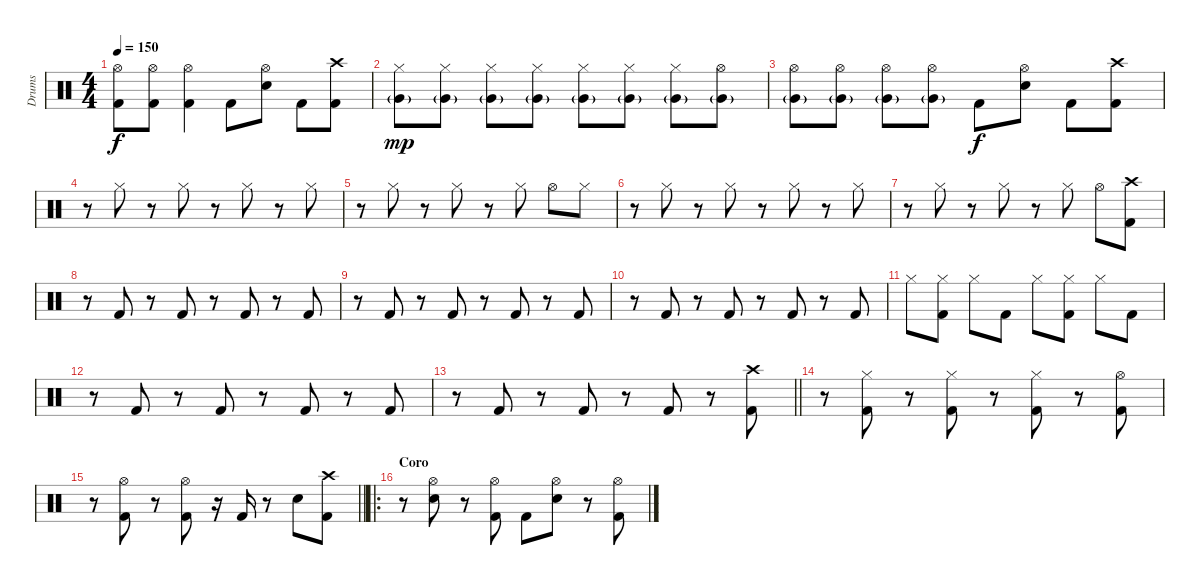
\track ("Drums" "Drums") {instrument percussion}
\staff {score}
\articulation defaults
\ts (4 4)
\tempo 150
\clef neutral
\ks c
("Kick (hit) 2" "Hi-Hat (open)").8{dy f} ("Kick (hit) 2" "Hi-Hat (open)").8 ("Kick (hit) 2" "Hi-Hat (open)").4 "Kick (hit) 2".8 ("Snare (hit) 2" "Hi-Hat (open)").8 "Kick (hit) 2".8 ("Kick (hit) 2" "Crash high (hit)").8 |
("Very Low Tom (hit)"{g} "Hi-Hat (closed)").8{dy mp} ("Very Low Tom (hit)"{g} "Hi-Hat (closed)").8 ("Very Low Tom (hit)"{g} "Hi-Hat (closed)").8 ("Very Low Tom (hit)"{g} "Hi-Hat (closed)").8 ("Very Low Tom (hit)"{g} "Hi-Hat (closed)").8 ("Very Low Tom (hit)"{g} "Hi-Hat (closed)").8 ("Very Low Tom (hit)"{g} "Hi-Hat (closed)").8 ("Very Low Tom (hit)"{g} "Hi-Hat (open)").8 |
("Very Low Tom (hit)"{g} "Hi-Hat (open)").8 ("Very Low Tom (hit)"{g} "Hi-Hat (open)").8 ("Very Low Tom (hit)"{g} "Hi-Hat (open)").8 ("Very Low Tom (hit)"{g} "Hi-Hat (open)").8 "Kick (hit) 2".8{dy f} ("Snare (hit) 2" "Hi-Hat (open)").8 "Kick (hit) 2".8 ("Kick (hit) 2" "Crash high (hit)").8 |
r.8 "Hi-Hat (closed)".8 r.8 "Hi-Hat (closed)".8 r.8 "Hi-Hat (closed)".8 r.8 "Hi-Hat (closed)".8 |
r.8 "Hi-Hat (closed)".8 r.8 "Hi-Hat (closed)".8 r.8 "Hi-Hat (closed)".8 "Hi-Hat (open)".8 "Hi-Hat (closed)".8 |
r.8 "Hi-Hat (closed)".8 r.8 "Hi-Hat (closed)".8 r.8 "Hi-Hat (closed)".8 r.8 "Hi-Hat (closed)".8 |
r.8 "Hi-Hat (closed)".8 r.8 "Hi-Hat (closed)".8 r.8 "Hi-Hat (closed)".8 "Hi-Hat (open)".8 ("Kick (hit) 2" "Crash high (hit)").8 |
r.8 "Kick (hit) 2".8 r.8 "Kick (hit) 2".8 r.8 "Kick (hit) 2".8 r.8 "Kick (hit) 2".8 |
r.8 "Kick (hit) 2".8 r.8 "Kick (hit) 2".8 r.8 "Kick (hit) 2".8 r.8 "Kick (hit) 2".8 |
r.8 "Kick (hit) 2".8 r.8 "Kick (hit) 2".8 r.8 "Kick (hit) 2".8 r.8 "Kick (hit) 2".8 |
"Hi-Hat (closed)".8 ("Kick (hit) 2" "Hi-Hat (closed)").8 "Hi-Hat (closed)".8 "Kick (hit) 2".8 "Hi-Hat (closed)".8 ("Kick (hit) 2" "Hi-Hat (closed)").8 "Hi-Hat (closed)".8 "Kick (hit) 2".8 |
r.8 "Kick (hit) 2".8 r.8 "Kick (hit) 2".8 r.8 "Kick (hit) 2".8 r.8 "Kick (hit) 2".8 |
\barLineRight lightlight
r.8 "Kick (hit) 2".8 r.8 "Kick (hit) 2".8 r.8 "Kick (hit) 2".8 r.8 ("Kick (hit) 2" "Crash high (hit)").8 |
\section ("" "")
r.8 ("Kick (hit) 2" "Hi-Hat (closed)").8 r.8 ("Kick (hit) 2" "Hi-Hat (closed)").8 r.8 ("Kick (hit) 2" "Hi-Hat (closed)").8 r.8 ("Kick (hit) 2" "Hi-Hat (open)").8 |
\barLineRight lightlight
r.8 ("Kick (hit) 2" "Hi-Hat (open)").8 r.8 ("Kick (hit) 2" "Hi-Hat (open)").8 r.16 "Kick (hit) 2".16 r.8 "Snare (hit) 2".8 ("Kick (hit) 2" "Crash high (hit)").8 |
\ro
\section ("" "Coro")
r.8 ("Snare (hit) 2" "Hi-Hat (open)").8 r.8 ("Kick (hit) 2" "Hi-Hat (open)").8 "Kick (hit) 2".8 ("Snare (hit) 2" "Hi-Hat (open)").8 r.8 ("Kick (hit) 2" "Hi-Hat (open)").8
